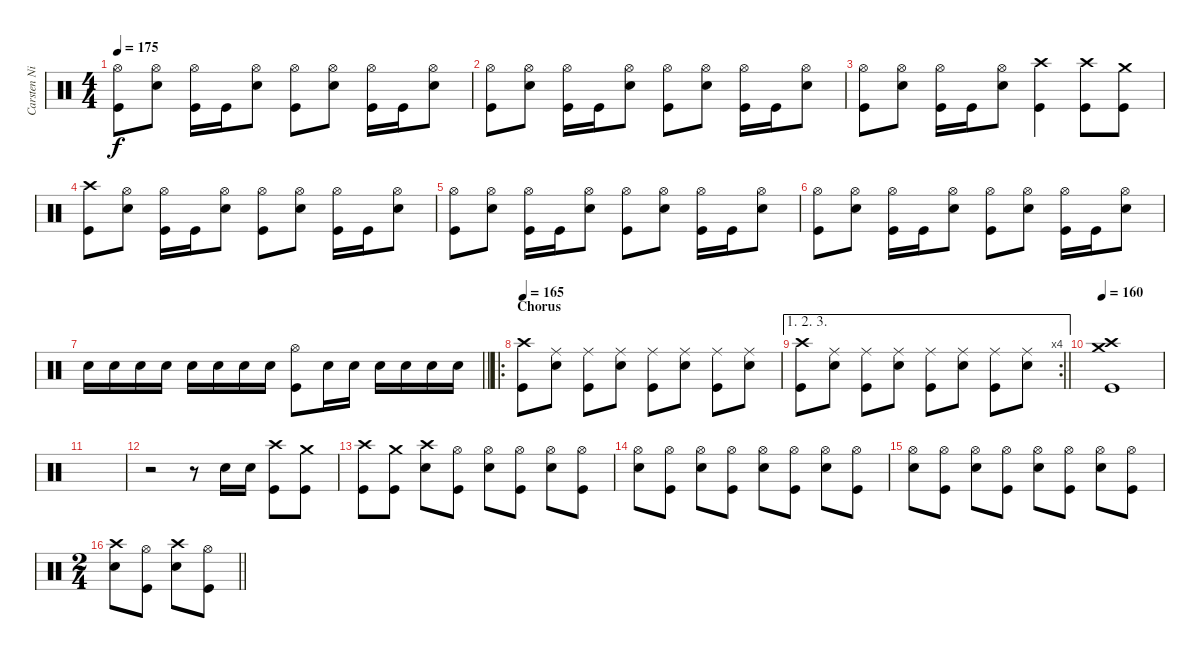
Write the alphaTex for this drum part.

\track ("Carsten Nielsen" "Carsten Ni") {instrument percussion}
\staff {score}
\articulation defaults
\ts (4 4)
\tempo 175
\clef neutral
\ks c
("Hi-Hat (open)" "Kick (hit)").8{dy f} ("Hi-Hat (open)" "Electric Snare (hit)").8 ("Hi-Hat (open)" "Kick (hit)").16 "Kick (hit)".16 ("Hi-Hat (open)" "Electric Snare (hit)").8 ("Hi-Hat (open)" "Kick (hit)").8 ("Hi-Hat (open)" "Electric Snare (hit)").8 ("Hi-Hat (open)" "Kick (hit)").16 "Kick (hit)".16 ("Hi-Hat (open)" "Electric Snare (hit)").8 |
("Hi-Hat (open)" "Kick (hit)").8 ("Hi-Hat (open)" "Electric Snare (hit)").8 ("Hi-Hat (open)" "Kick (hit)").16 "Kick (hit)".16 ("Hi-Hat (open)" "Electric Snare (hit)").8 ("Hi-Hat (open)" "Kick (hit)").8 ("Hi-Hat (open)" "Electric Snare (hit)").8 ("Hi-Hat (open)" "Kick (hit)").16 "Kick (hit)".16 ("Hi-Hat (open)" "Electric Snare (hit)").8 |
("Hi-Hat (open)" "Kick (hit)").8 ("Hi-Hat (open)" "Electric Snare (hit)").8 ("Hi-Hat (open)" "Kick (hit)").16 "Kick (hit)".16 ("Hi-Hat (open)" "Electric Snare (hit)").8 ("Crash high (hit)" "Kick (hit)").4 ("Crash high (hit)" "Kick (hit)").8 ("Crash medium (hit)" "Kick (hit)").8 |
("Crash high (hit)" "Kick (hit)").8 ("Hi-Hat (open)" "Electric Snare (hit)").8 ("Hi-Hat (open)" "Kick (hit)").16 "Kick (hit)".16 ("Hi-Hat (open)" "Electric Snare (hit)").8 ("Hi-Hat (open)" "Kick (hit)").8 ("Hi-Hat (open)" "Electric Snare (hit)").8 ("Hi-Hat (open)" "Kick (hit)").16 "Kick (hit)".16 ("Hi-Hat (open)" "Electric Snare (hit)").8 |
("Hi-Hat (open)" "Kick (hit)").8 ("Hi-Hat (open)" "Electric Snare (hit)").8 ("Hi-Hat (open)" "Kick (hit)").16 "Kick (hit)".16 ("Hi-Hat (open)" "Electric Snare (hit)").8 ("Hi-Hat (open)" "Kick (hit)").8 ("Hi-Hat (open)" "Electric Snare (hit)").8 ("Hi-Hat (open)" "Kick (hit)").16 "Kick (hit)".16 ("Hi-Hat (open)" "Electric Snare (hit)").8 |
("Hi-Hat (open)" "Kick (hit)").8 ("Hi-Hat (open)" "Electric Snare (hit)").8 ("Hi-Hat (open)" "Kick (hit)").16 "Kick (hit)".16 ("Hi-Hat (open)" "Electric Snare (hit)").8 ("Hi-Hat (open)" "Kick (hit)").8 ("Hi-Hat (open)" "Electric Snare (hit)").8 ("Hi-Hat (open)" "Kick (hit)").16 "Kick (hit)".16 ("Hi-Hat (open)" "Electric Snare (hit)").8 |
\barLineRight lightlight "Electric Snare (hit)".16 "Electric Snare (hit)".16 "Electric Snare (hit)".16 "Electric Snare (hit)".16 "Electric Snare (hit)".16 "Electric Snare (hit)".16 "Electric Snare (hit)".16 "Electric Snare (hit)".16
("Hi-Hat (open)" "Kick (hit)").8 "Electric Snare (hit)".16 "Electric Snare (hit)".16 "Electric Snare (hit)".16 "Electric Snare (hit)".16 "Electric Snare (hit)".16 "Electric Snare (hit)".16 |
\ro
\section ("" "Chorus")
\tempo 165
("Crash high (hit)" "Kick (hit)").8 ("Ride (middle)" "Electric Snare (hit)").8 ("Ride (middle)" "Kick (hit)").8 ("Ride (middle)" "Electric Snare (hit)").8 ("Ride (middle)" "Kick (hit)").8 ("Ride (middle)" "Electric Snare (hit)").8 ("Ride (middle)" "Kick (hit)").8 ("Ride (middle)" "Electric Snare (hit)").8 |
\ae (1 2 3)
\rc 4
\barLineRight lightlight
("Crash high (hit)" "Kick (hit)").8 ("Ride (middle)" "Electric Snare (hit)").8 ("Ride (middle)" "Kick (hit)").8 ("Ride (middle)" "Electric Snare (hit)").8 ("Ride (middle)" "Kick (hit)").8 ("Ride (middle)" "Electric Snare (hit)").8 ("Ride (middle)" "Kick (hit)").8 ("Ride (middle)" "Electric Snare (hit)").8 |
\tempo 160
("Crash high (hit)" "Crash medium (hit)" "Kick (hit)").1 |
|
r.2 r.8 "Electric Snare (hit)".16 "Electric Snare (hit)".16 ("Crash high (hit)" "Kick (hit)").8 ("Crash medium (hit)" "Kick (hit)").8 |
("Crash high (hit)" "Kick (hit)").8 ("Crash medium (hit)" "Kick (hit)").8 ("Crash high (hit)" "Electric Snare (hit)").8 ("Hi-Hat (open)" "Kick (hit)").8 ("Hi-Hat (open)" "Electric Snare (hit)").8 ("Hi-Hat (open)" "Kick (hit)").8 ("Hi-Hat (open)" "Electric Snare (hit)").8 ("Hi-Hat (open)" "Kick (hit)").8 |
("Hi-Hat (open)" "Electric Snare (hit)").8 ("Hi-Hat (open)" "Kick (hit)").8 ("Hi-Hat (open)" "Electric Snare (hit)").8 ("Hi-Hat (open)" "Kick (hit)").8 ("Hi-Hat (open)" "Electric Snare (hit)").8 ("Hi-Hat (open)" "Kick (hit)").8 ("Hi-Hat (open)" "Electric Snare (hit)").8 ("Hi-Hat (open)" "Kick (hit)").8 |
("Hi-Hat (open)" "Electric Snare (hit)").8 ("Hi-Hat (open)" "Kick (hit)").8 ("Hi-Hat (open)" "Electric Snare (hit)").8 ("Hi-Hat (open)" "Kick (hit)").8 ("Hi-Hat (open)" "Electric Snare (hit)").8 ("Hi-Hat (open)" "Kick (hit)").8 ("Hi-Hat (open)" "Electric Snare (hit)").8 ("Hi-Hat (open)" "Kick (hit)").8 |
\ts (2 4)
\barLineRight lightlight
("Crash high (hit)" "Electric Snare (hit)").8 ("Hi-Hat (open)" "Kick (hit)").8 ("Crash high (hit)" "Electric Snare (hit)").8 ("Hi-Hat (open)" "Kick (hit)").8
